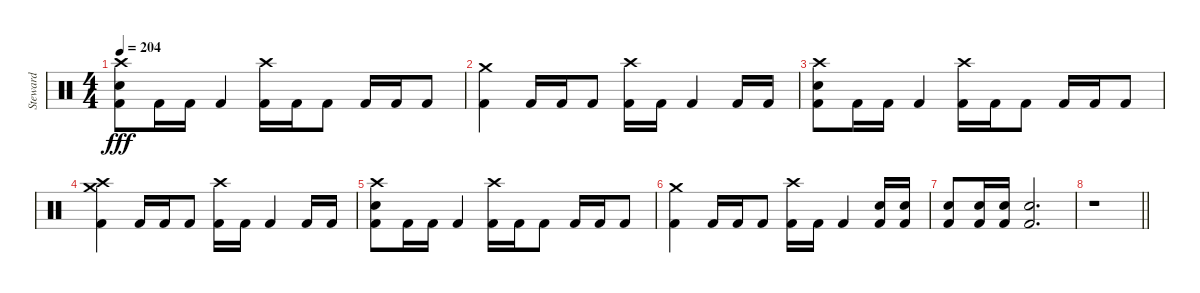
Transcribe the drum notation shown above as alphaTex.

\track ("Steward" "Steward") {instrument percussion}
\staff {score}
\articulation defaults
\ts (4 4)
\tempo 204
\clef neutral
\ks c
("Crash high (hit)" "Electric Snare (hit)" "Kick (hit) 2").8{dy fff} "Kick (hit) 2".16 "Kick (hit) 2".16 "Kick (hit) 2".4 ("Crash high (hit)" "Kick (hit) 2").16 "Kick (hit) 2".16 "Kick (hit) 2".8 "Kick (hit) 2".16 "Kick (hit) 2".16 "Kick (hit) 2".8 |
("Crash medium (hit)" "Kick (hit) 2").4 "Kick (hit) 2".16 "Kick (hit) 2".16 "Kick (hit) 2".8 ("Crash high (hit)" "Kick (hit) 2").16 "Kick (hit) 2".16 "Kick (hit) 2".4 "Kick (hit) 2".16 "Kick (hit) 2".16 |
("Crash high (hit)" "Electric Snare (hit)" "Kick (hit) 2").8 "Kick (hit) 2".16 "Kick (hit) 2".16 "Kick (hit) 2".4 ("Crash high (hit)" "Kick (hit) 2").16 "Kick (hit) 2".16 "Kick (hit) 2".8 "Kick (hit) 2".16 "Kick (hit) 2".16 "Kick (hit) 2".8 |
("Crash medium (hit)" "Crash high (hit)" "Kick (hit) 2").4 "Kick (hit) 2".16 "Kick (hit) 2".16 "Kick (hit) 2".8 ("Crash high (hit)" "Kick (hit) 2").16 "Kick (hit) 2".16 "Kick (hit) 2".4 "Kick (hit) 2".16 "Kick (hit) 2".16 |
("Crash high (hit)" "Electric Snare (hit)" "Kick (hit) 2").8 "Kick (hit) 2".16 "Kick (hit) 2".16 "Kick (hit) 2".4 ("Crash high (hit)" "Kick (hit) 2").16 "Kick (hit) 2".16 "Kick (hit) 2".8 "Kick (hit) 2".16 "Kick (hit) 2".16 "Kick (hit) 2".8 |
("Crash medium (hit)" "Kick (hit) 2").4 "Kick (hit) 2".16 "Kick (hit) 2".16 "Kick (hit) 2".8 ("Crash high (hit)" "Kick (hit) 2").16 "Kick (hit) 2".16 "Kick (hit) 2".4 ("Electric Snare (hit)" "Kick (hit) 2").16 ("Electric Snare (hit)" "Kick (hit) 2").16 |
("Electric Snare (hit)" "Kick (hit) 2").8 ("Electric Snare (hit)" "Kick (hit) 2").16 ("Electric Snare (hit)" "Kick (hit) 2").16 ("Electric Snare (hit)" "Kick (hit) 2").2{d} |
\barLineRight lightlight
r.1
